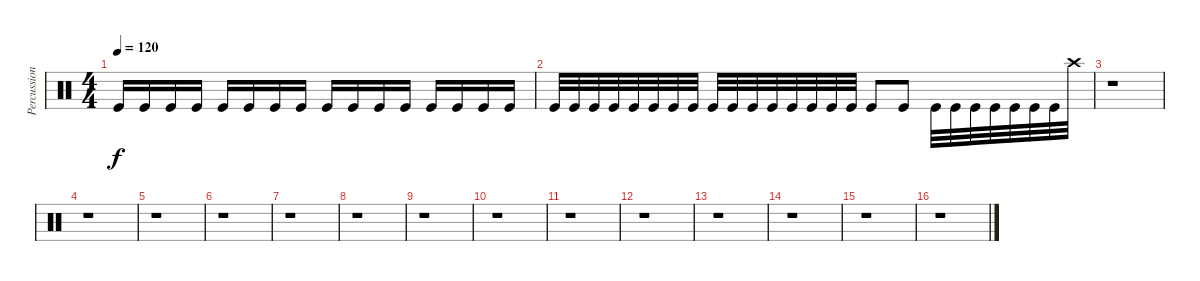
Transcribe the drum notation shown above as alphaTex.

\track ("Percussion" "Percussion") {instrument percussion}
\staff {score}
\articulation defaults
\ts (4 4)
\tempo 120
\clef neutral
\ks c "Kick (hit)".16{dy f} "Kick (hit)".16 "Kick (hit)".16 "Kick (hit)".16 "Kick (hit)".16 "Kick (hit)".16 "Kick (hit)".16 "Kick (hit)".16 "Kick (hit)".16 "Kick (hit)".16 "Kick (hit)".16 "Kick (hit)".16 "Kick (hit)".16 "Kick (hit)".16 "Kick (hit)".16 "Kick (hit)".16
|
"Kick (hit)".32 "Kick (hit)".32 "Kick (hit)".32 "Kick (hit)".32 "Kick (hit)".32 "Kick (hit)".32 "Kick (hit)".32 "Kick (hit)".32 "Kick (hit)".32 "Kick (hit)".32 "Kick (hit)".32 "Kick (hit)".32 "Kick (hit)".32 "Kick (hit)".32 "Kick (hit)".32 "Kick (hit)".32 "Kick (hit)".8 "Kick (hit)".8 "Kick (hit)".32 "Kick (hit)".32 "Kick (hit)".32 "Kick (hit)".32 "Kick (hit)".32 "Kick (hit)".32 "Kick (hit)".32 "Crash high (hit)".32 |
r.1 |
r.1 |
r.1 |
r.1 |
r.1 |
r.1 |
r.1 |
r.1 |
r.1 |
r.1 |
r.1 |
r.1 |
r.1 |
r.1
